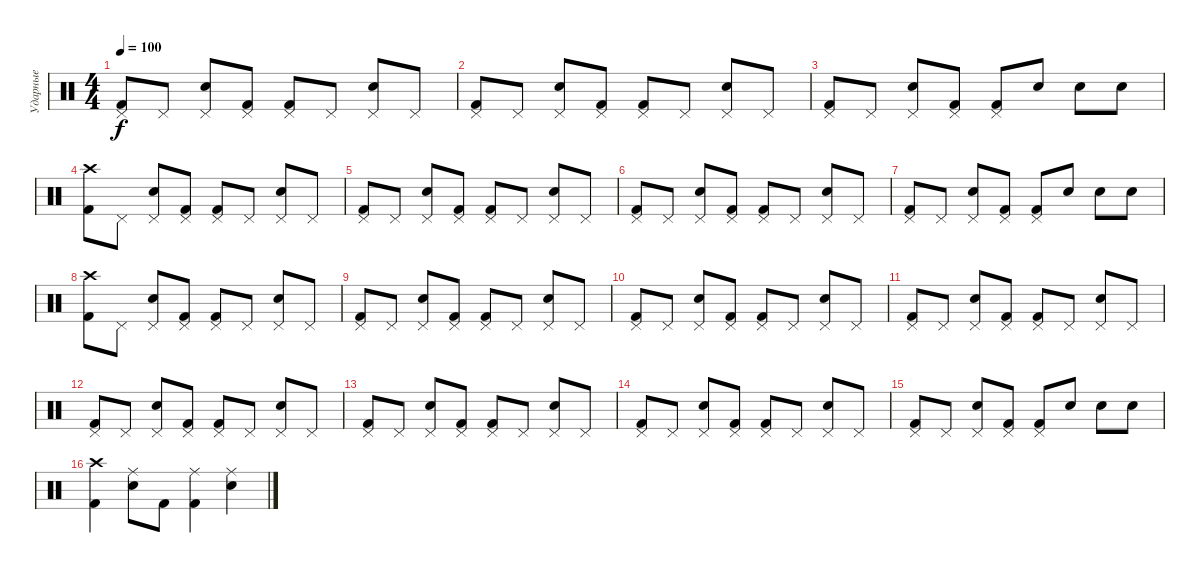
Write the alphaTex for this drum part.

\track ("Ударные" "Ударные") {instrument percussion}
\staff {score}
\articulation defaults
\ts (4 4)
\tempo 100
\clef neutral
\ks c
("Pedal Hi-Hat (hit)" "Kick (hit) 2").8{dy f} "Pedal Hi-Hat (hit)".8 ("Pedal Hi-Hat (hit)" "Snare (hit) 2").8 ("Pedal Hi-Hat (hit)" "Kick (hit) 2").8 ("Pedal Hi-Hat (hit)" "Kick (hit) 2").8 "Pedal Hi-Hat (hit)".8 ("Pedal Hi-Hat (hit)" "Snare (hit) 2").8 "Pedal Hi-Hat (hit)".8 |
("Pedal Hi-Hat (hit)" "Kick (hit) 2").8 "Pedal Hi-Hat (hit)".8 ("Pedal Hi-Hat (hit)" "Snare (hit) 2").8 ("Pedal Hi-Hat (hit)" "Kick (hit) 2").8 ("Pedal Hi-Hat (hit)" "Kick (hit) 2").8 "Pedal Hi-Hat (hit)".8 ("Pedal Hi-Hat (hit)" "Snare (hit) 2").8 "Pedal Hi-Hat (hit)".8 |
("Pedal Hi-Hat (hit)" "Kick (hit) 2").8 "Pedal Hi-Hat (hit)".8 ("Pedal Hi-Hat (hit)" "Snare (hit) 2").8 ("Pedal Hi-Hat (hit)" "Kick (hit) 2").8 ("Pedal Hi-Hat (hit)" "Kick (hit) 2").8 "Snare (hit) 2".8 "Snare (hit) 2".8 "Snare (hit) 2".8 |
("Crash high (hit)" "Kick (hit) 2").8 "Pedal Hi-Hat (hit)".8 ("Pedal Hi-Hat (hit)" "Snare (hit) 2").8 ("Pedal Hi-Hat (hit)" "Kick (hit) 2").8 ("Pedal Hi-Hat (hit)" "Kick (hit) 2").8 "Pedal Hi-Hat (hit)".8 ("Pedal Hi-Hat (hit)" "Snare (hit) 2").8 "Pedal Hi-Hat (hit)".8 |
("Pedal Hi-Hat (hit)" "Kick (hit) 2").8 "Pedal Hi-Hat (hit)".8 ("Pedal Hi-Hat (hit)" "Snare (hit) 2").8 ("Pedal Hi-Hat (hit)" "Kick (hit) 2").8 ("Pedal Hi-Hat (hit)" "Kick (hit) 2").8 "Pedal Hi-Hat (hit)".8 ("Pedal Hi-Hat (hit)" "Snare (hit) 2").8 "Pedal Hi-Hat (hit)".8 |
("Pedal Hi-Hat (hit)" "Kick (hit) 2").8 "Pedal Hi-Hat (hit)".8 ("Pedal Hi-Hat (hit)" "Snare (hit) 2").8 ("Pedal Hi-Hat (hit)" "Kick (hit) 2").8 ("Pedal Hi-Hat (hit)" "Kick (hit) 2").8 "Pedal Hi-Hat (hit)".8 ("Pedal Hi-Hat (hit)" "Snare (hit) 2").8 "Pedal Hi-Hat (hit)".8 |
("Pedal Hi-Hat (hit)" "Kick (hit) 2").8 "Pedal Hi-Hat (hit)".8 ("Pedal Hi-Hat (hit)" "Snare (hit) 2").8 ("Pedal Hi-Hat (hit)" "Kick (hit) 2").8 ("Pedal Hi-Hat (hit)" "Kick (hit) 2").8 "Snare (hit) 2".8 "Snare (hit) 2".8 "Snare (hit) 2".8 |
("Crash high (hit)" "Kick (hit) 2").8 "Pedal Hi-Hat (hit)".8 ("Pedal Hi-Hat (hit)" "Snare (hit) 2").8 ("Pedal Hi-Hat (hit)" "Kick (hit) 2").8 ("Pedal Hi-Hat (hit)" "Kick (hit) 2").8 "Pedal Hi-Hat (hit)".8 ("Pedal Hi-Hat (hit)" "Snare (hit) 2").8 "Pedal Hi-Hat (hit)".8 |
("Pedal Hi-Hat (hit)" "Kick (hit) 2").8 "Pedal Hi-Hat (hit)".8 ("Pedal Hi-Hat (hit)" "Snare (hit) 2").8 ("Pedal Hi-Hat (hit)" "Kick (hit) 2").8 ("Pedal Hi-Hat (hit)" "Kick (hit) 2").8 "Pedal Hi-Hat (hit)".8 ("Pedal Hi-Hat (hit)" "Snare (hit) 2").8 "Pedal Hi-Hat (hit)".8 |
("Pedal Hi-Hat (hit)" "Kick (hit) 2").8 "Pedal Hi-Hat (hit)".8 ("Pedal Hi-Hat (hit)" "Snare (hit) 2").8 ("Pedal Hi-Hat (hit)" "Kick (hit) 2").8 ("Pedal Hi-Hat (hit)" "Kick (hit) 2").8 "Pedal Hi-Hat (hit)".8 ("Pedal Hi-Hat (hit)" "Snare (hit) 2").8 "Pedal Hi-Hat (hit)".8 |
("Pedal Hi-Hat (hit)" "Kick (hit) 2").8 "Pedal Hi-Hat (hit)".8 ("Pedal Hi-Hat (hit)" "Snare (hit) 2").8 ("Pedal Hi-Hat (hit)" "Kick (hit) 2").8 ("Pedal Hi-Hat (hit)" "Kick (hit) 2").8 "Pedal Hi-Hat (hit)".8 ("Pedal Hi-Hat (hit)" "Snare (hit) 2").8 "Pedal Hi-Hat (hit)".8 |
("Pedal Hi-Hat (hit)" "Kick (hit) 2").8 "Pedal Hi-Hat (hit)".8 ("Pedal Hi-Hat (hit)" "Snare (hit) 2").8 ("Pedal Hi-Hat (hit)" "Kick (hit) 2").8 ("Pedal Hi-Hat (hit)" "Kick (hit) 2").8 "Pedal Hi-Hat (hit)".8 ("Pedal Hi-Hat (hit)" "Snare (hit) 2").8 "Pedal Hi-Hat (hit)".8 |
("Pedal Hi-Hat (hit)" "Kick (hit) 2").8 "Pedal Hi-Hat (hit)".8 ("Pedal Hi-Hat (hit)" "Snare (hit) 2").8 ("Pedal Hi-Hat (hit)" "Kick (hit) 2").8 ("Pedal Hi-Hat (hit)" "Kick (hit) 2").8 "Pedal Hi-Hat (hit)".8 ("Pedal Hi-Hat (hit)" "Snare (hit) 2").8 "Pedal Hi-Hat (hit)".8 |
("Pedal Hi-Hat (hit)" "Kick (hit) 2").8 "Pedal Hi-Hat (hit)".8 ("Pedal Hi-Hat (hit)" "Snare (hit) 2").8 ("Pedal Hi-Hat (hit)" "Kick (hit) 2").8 ("Pedal Hi-Hat (hit)" "Kick (hit) 2").8 "Pedal Hi-Hat (hit)".8 ("Pedal Hi-Hat (hit)" "Snare (hit) 2").8 "Pedal Hi-Hat (hit)".8 |
("Pedal Hi-Hat (hit)" "Kick (hit) 2").8 "Pedal Hi-Hat (hit)".8 ("Pedal Hi-Hat (hit)" "Snare (hit) 2").8 ("Pedal Hi-Hat (hit)" "Kick (hit) 2").8 ("Pedal Hi-Hat (hit)" "Kick (hit) 2").8 "Snare (hit) 2".8 "Snare (hit) 2".8 "Snare (hit) 2".8 |
("Crash high (hit)" "Kick (hit) 2").4 ("Ride (middle)" "Snare (hit) 2").8 "Kick (hit) 2".8 ("Ride (middle)" "Kick (hit) 2").4 ("Ride (middle)" "Snare (hit) 2").4
